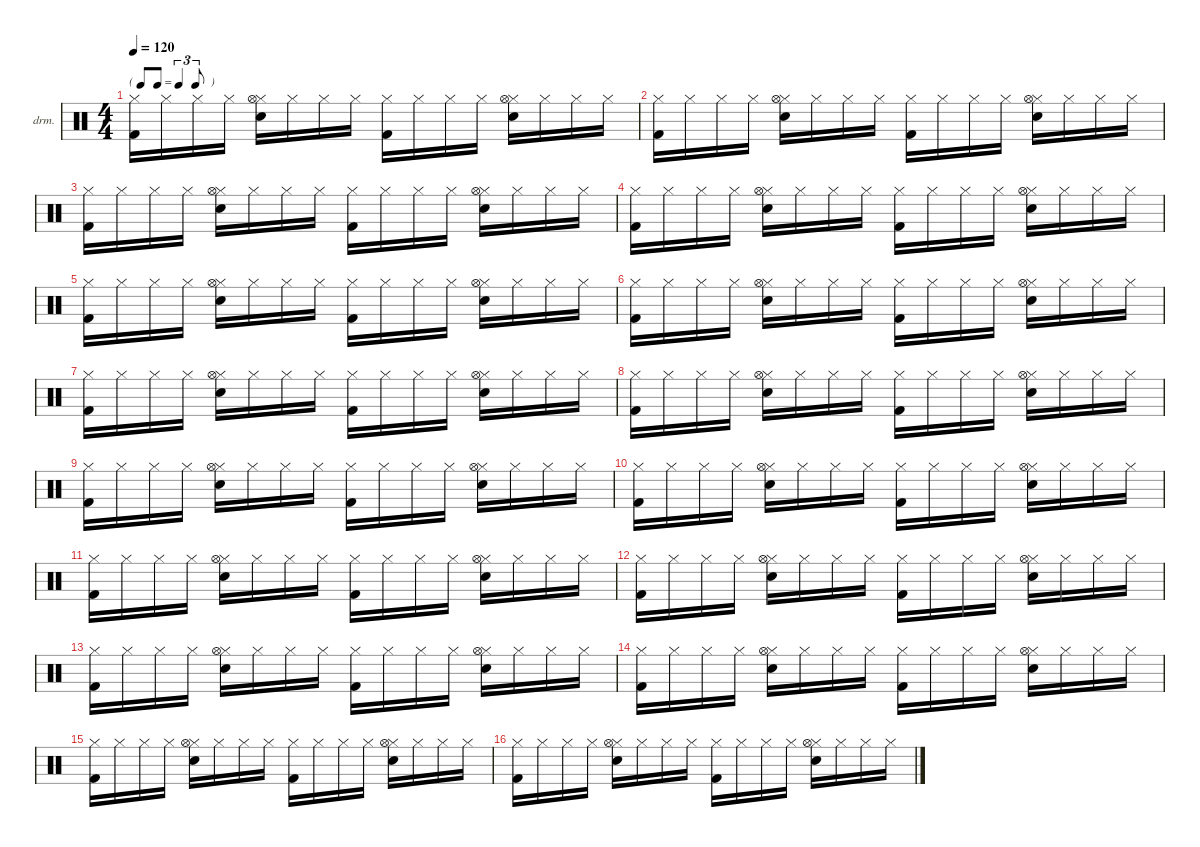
\defaultSystemsLayout 4
\hideDynamics
\bracketExtendMode nobrackets
\firstSystemTrackNameOrientation horizontal
\otherSystemsTrackNameOrientation horizontal
\track ("Percussions" "drm.") {instrument percussion}
\staff {score}
\articulation defaults
\ts (4 4)
\tf triplet8th
\tempo 120
\clef neutral
\ks c
("Hi-Hat (closed)" "Kick (hit) 2").16{dy f beam Down} "Hi-Hat (closed)".16{beam Down} "Hi-Hat (closed)".16{beam Down} "Hi-Hat (closed)".16{beam Down} ("Snare (hit) 2" "Hi-Hat (closed)" "Hi-Hat (open)").16{beam Down} "Hi-Hat (closed)".16{beam Down} "Hi-Hat (closed)".16{beam Down} "Hi-Hat (closed)".16{beam Down} ("Hi-Hat (closed)" "Kick (hit) 2").16{beam Down} "Hi-Hat (closed)".16{beam Down} "Hi-Hat (closed)".16{beam Down} "Hi-Hat (closed)".16{beam Down} ("Snare (hit) 2" "Hi-Hat (closed)" "Hi-Hat (open)").16{beam Down} "Hi-Hat (closed)".16{beam Down} "Hi-Hat (closed)".16{beam Down} "Hi-Hat (closed)".16{beam Down} |
("Hi-Hat (closed)" "Kick (hit) 2").16{beam Down} "Hi-Hat (closed)".16{beam Down} "Hi-Hat (closed)".16{beam Down} "Hi-Hat (closed)".16{beam Down} ("Snare (hit) 2" "Hi-Hat (closed)" "Hi-Hat (open)").16{beam Down} "Hi-Hat (closed)".16{beam Down} "Hi-Hat (closed)".16{beam Down} "Hi-Hat (closed)".16{beam Down} ("Hi-Hat (closed)" "Kick (hit) 2").16{beam Down} "Hi-Hat (closed)".16{beam Down} "Hi-Hat (closed)".16{beam Down} "Hi-Hat (closed)".16{beam Down} ("Snare (hit) 2" "Hi-Hat (closed)" "Hi-Hat (open)").16{beam Down} "Hi-Hat (closed)".16{beam Down} "Hi-Hat (closed)".16{beam Down} "Hi-Hat (closed)".16{beam Down} |
("Hi-Hat (closed)" "Kick (hit) 2").16{beam Down} "Hi-Hat (closed)".16{beam Down} "Hi-Hat (closed)".16{beam Down} "Hi-Hat (closed)".16{beam Down} ("Snare (hit) 2" "Hi-Hat (closed)" "Hi-Hat (open)").16{beam Down} "Hi-Hat (closed)".16{beam Down} "Hi-Hat (closed)".16{beam Down} "Hi-Hat (closed)".16{beam Down} ("Hi-Hat (closed)" "Kick (hit) 2").16{beam Down} "Hi-Hat (closed)".16{beam Down} "Hi-Hat (closed)".16{beam Down} "Hi-Hat (closed)".16{beam Down} ("Snare (hit) 2" "Hi-Hat (closed)" "Hi-Hat (open)").16{beam Down} "Hi-Hat (closed)".16{beam Down} "Hi-Hat (closed)".16{beam Down} "Hi-Hat (closed)".16{beam Down} |
("Hi-Hat (closed)" "Kick (hit) 2").16{beam Down} "Hi-Hat (closed)".16{beam Down} "Hi-Hat (closed)".16{beam Down} "Hi-Hat (closed)".16{beam Down} ("Snare (hit) 2" "Hi-Hat (closed)" "Hi-Hat (open)").16{beam Down} "Hi-Hat (closed)".16{beam Down} "Hi-Hat (closed)".16{beam Down} "Hi-Hat (closed)".16{beam Down} ("Hi-Hat (closed)" "Kick (hit) 2").16{beam Down} "Hi-Hat (closed)".16{beam Down} "Hi-Hat (closed)".16{beam Down} "Hi-Hat (closed)".16{beam Down} ("Snare (hit) 2" "Hi-Hat (closed)" "Hi-Hat (open)").16{beam Down} "Hi-Hat (closed)".16{beam Down} "Hi-Hat (closed)".16{beam Down} "Hi-Hat (closed)".16{beam Down} |
("Hi-Hat (closed)" "Kick (hit) 2").16{beam Down} "Hi-Hat (closed)".16{beam Down} "Hi-Hat (closed)".16{beam Down} "Hi-Hat (closed)".16{beam Down} ("Snare (hit) 2" "Hi-Hat (closed)" "Hi-Hat (open)").16{beam Down} "Hi-Hat (closed)".16{beam Down} "Hi-Hat (closed)".16{beam Down} "Hi-Hat (closed)".16{beam Down} ("Hi-Hat (closed)" "Kick (hit) 2").16{beam Down} "Hi-Hat (closed)".16{beam Down} "Hi-Hat (closed)".16{beam Down} "Hi-Hat (closed)".16{beam Down} ("Snare (hit) 2" "Hi-Hat (closed)" "Hi-Hat (open)").16{beam Down} "Hi-Hat (closed)".16{beam Down} "Hi-Hat (closed)".16{beam Down} "Hi-Hat (closed)".16{beam Down} |
("Hi-Hat (closed)" "Kick (hit) 2").16{beam Down} "Hi-Hat (closed)".16{beam Down} "Hi-Hat (closed)".16{beam Down} "Hi-Hat (closed)".16{beam Down} ("Snare (hit) 2" "Hi-Hat (closed)" "Hi-Hat (open)").16{beam Down} "Hi-Hat (closed)".16{beam Down} "Hi-Hat (closed)".16{beam Down} "Hi-Hat (closed)".16{beam Down} ("Hi-Hat (closed)" "Kick (hit) 2").16{beam Down} "Hi-Hat (closed)".16{beam Down} "Hi-Hat (closed)".16{beam Down} "Hi-Hat (closed)".16{beam Down} ("Snare (hit) 2" "Hi-Hat (closed)" "Hi-Hat (open)").16{beam Down} "Hi-Hat (closed)".16{beam Down} "Hi-Hat (closed)".16{beam Down} "Hi-Hat (closed)".16{beam Down} |
("Hi-Hat (closed)" "Kick (hit) 2").16{beam Down} "Hi-Hat (closed)".16{beam Down} "Hi-Hat (closed)".16{beam Down} "Hi-Hat (closed)".16{beam Down} ("Snare (hit) 2" "Hi-Hat (closed)" "Hi-Hat (open)").16{beam Down} "Hi-Hat (closed)".16{beam Down} "Hi-Hat (closed)".16{beam Down} "Hi-Hat (closed)".16{beam Down} ("Hi-Hat (closed)" "Kick (hit) 2").16{beam Down} "Hi-Hat (closed)".16{beam Down} "Hi-Hat (closed)".16{beam Down} "Hi-Hat (closed)".16{beam Down} ("Snare (hit) 2" "Hi-Hat (closed)" "Hi-Hat (open)").16{beam Down} "Hi-Hat (closed)".16{beam Down} "Hi-Hat (closed)".16{beam Down} "Hi-Hat (closed)".16{beam Down} |
("Hi-Hat (closed)" "Kick (hit) 2").16{beam Down} "Hi-Hat (closed)".16{beam Down} "Hi-Hat (closed)".16{beam Down} "Hi-Hat (closed)".16{beam Down} ("Snare (hit) 2" "Hi-Hat (closed)" "Hi-Hat (open)").16{beam Down} "Hi-Hat (closed)".16{beam Down} "Hi-Hat (closed)".16{beam Down} "Hi-Hat (closed)".16{beam Down} ("Hi-Hat (closed)" "Kick (hit) 2").16{beam Down} "Hi-Hat (closed)".16{beam Down} "Hi-Hat (closed)".16{beam Down} "Hi-Hat (closed)".16{beam Down} ("Snare (hit) 2" "Hi-Hat (closed)" "Hi-Hat (open)").16{beam Down} "Hi-Hat (closed)".16{beam Down} "Hi-Hat (closed)".16{beam Down} "Hi-Hat (closed)".16{beam Down} |
("Hi-Hat (closed)" "Kick (hit) 2").16{beam Down} "Hi-Hat (closed)".16{beam Down} "Hi-Hat (closed)".16{beam Down} "Hi-Hat (closed)".16{beam Down} ("Snare (hit) 2" "Hi-Hat (closed)" "Hi-Hat (open)").16{beam Down} "Hi-Hat (closed)".16{beam Down} "Hi-Hat (closed)".16{beam Down} "Hi-Hat (closed)".16{beam Down} ("Hi-Hat (closed)" "Kick (hit) 2").16{beam Down} "Hi-Hat (closed)".16{beam Down} "Hi-Hat (closed)".16{beam Down} "Hi-Hat (closed)".16{beam Down} ("Snare (hit) 2" "Hi-Hat (closed)" "Hi-Hat (open)").16{beam Down} "Hi-Hat (closed)".16{beam Down} "Hi-Hat (closed)".16{beam Down} "Hi-Hat (closed)".16{beam Down} |
("Hi-Hat (closed)" "Kick (hit) 2").16{beam Down} "Hi-Hat (closed)".16{beam Down} "Hi-Hat (closed)".16{beam Down} "Hi-Hat (closed)".16{beam Down} ("Snare (hit) 2" "Hi-Hat (closed)" "Hi-Hat (open)").16{beam Down} "Hi-Hat (closed)".16{beam Down} "Hi-Hat (closed)".16{beam Down} "Hi-Hat (closed)".16{beam Down} ("Hi-Hat (closed)" "Kick (hit) 2").16{beam Down} "Hi-Hat (closed)".16{beam Down} "Hi-Hat (closed)".16{beam Down} "Hi-Hat (closed)".16{beam Down} ("Snare (hit) 2" "Hi-Hat (closed)" "Hi-Hat (open)").16{beam Down} "Hi-Hat (closed)".16{beam Down} "Hi-Hat (closed)".16{beam Down} "Hi-Hat (closed)".16{beam Down} |
("Hi-Hat (closed)" "Kick (hit) 2").16{beam Down} "Hi-Hat (closed)".16{beam Down} "Hi-Hat (closed)".16{beam Down} "Hi-Hat (closed)".16{beam Down} ("Snare (hit) 2" "Hi-Hat (closed)" "Hi-Hat (open)").16{beam Down} "Hi-Hat (closed)".16{beam Down} "Hi-Hat (closed)".16{beam Down} "Hi-Hat (closed)".16{beam Down} ("Hi-Hat (closed)" "Kick (hit) 2").16{beam Down} "Hi-Hat (closed)".16{beam Down} "Hi-Hat (closed)".16{beam Down} "Hi-Hat (closed)".16{beam Down} ("Snare (hit) 2" "Hi-Hat (closed)" "Hi-Hat (open)").16{beam Down} "Hi-Hat (closed)".16{beam Down} "Hi-Hat (closed)".16{beam Down} "Hi-Hat (closed)".16{beam Down} |
("Hi-Hat (closed)" "Kick (hit) 2").16{beam Down} "Hi-Hat (closed)".16{beam Down} "Hi-Hat (closed)".16{beam Down} "Hi-Hat (closed)".16{beam Down} ("Snare (hit) 2" "Hi-Hat (closed)" "Hi-Hat (open)").16{beam Down} "Hi-Hat (closed)".16{beam Down} "Hi-Hat (closed)".16{beam Down} "Hi-Hat (closed)".16{beam Down} ("Hi-Hat (closed)" "Kick (hit) 2").16{beam Down} "Hi-Hat (closed)".16{beam Down} "Hi-Hat (closed)".16{beam Down} "Hi-Hat (closed)".16{beam Down} ("Snare (hit) 2" "Hi-Hat (closed)" "Hi-Hat (open)").16{beam Down} "Hi-Hat (closed)".16{beam Down} "Hi-Hat (closed)".16{beam Down} "Hi-Hat (closed)".16{beam Down} |
("Hi-Hat (closed)" "Kick (hit) 2").16{beam Down} "Hi-Hat (closed)".16{beam Down} "Hi-Hat (closed)".16{beam Down} "Hi-Hat (closed)".16{beam Down} ("Snare (hit) 2" "Hi-Hat (closed)" "Hi-Hat (open)").16{beam Down} "Hi-Hat (closed)".16{beam Down} "Hi-Hat (closed)".16{beam Down} "Hi-Hat (closed)".16{beam Down} ("Hi-Hat (closed)" "Kick (hit) 2").16{beam Down} "Hi-Hat (closed)".16{beam Down} "Hi-Hat (closed)".16{beam Down} "Hi-Hat (closed)".16{beam Down} ("Snare (hit) 2" "Hi-Hat (closed)" "Hi-Hat (open)").16{beam Down} "Hi-Hat (closed)".16{beam Down} "Hi-Hat (closed)".16{beam Down} "Hi-Hat (closed)".16{beam Down} |
("Hi-Hat (closed)" "Kick (hit) 2").16{beam Down} "Hi-Hat (closed)".16{beam Down} "Hi-Hat (closed)".16{beam Down} "Hi-Hat (closed)".16{beam Down} ("Snare (hit) 2" "Hi-Hat (closed)" "Hi-Hat (open)").16{beam Down} "Hi-Hat (closed)".16{beam Down} "Hi-Hat (closed)".16{beam Down} "Hi-Hat (closed)".16{beam Down} ("Hi-Hat (closed)" "Kick (hit) 2").16{beam Down} "Hi-Hat (closed)".16{beam Down} "Hi-Hat (closed)".16{beam Down} "Hi-Hat (closed)".16{beam Down} ("Snare (hit) 2" "Hi-Hat (closed)" "Hi-Hat (open)").16{beam Down} "Hi-Hat (closed)".16{beam Down} "Hi-Hat (closed)".16{beam Down} "Hi-Hat (closed)".16{beam Down} |
("Hi-Hat (closed)" "Kick (hit) 2").16{beam Down} "Hi-Hat (closed)".16{beam Down} "Hi-Hat (closed)".16{beam Down} "Hi-Hat (closed)".16{beam Down} ("Snare (hit) 2" "Hi-Hat (closed)" "Hi-Hat (open)").16{beam Down} "Hi-Hat (closed)".16{beam Down} "Hi-Hat (closed)".16{beam Down} "Hi-Hat (closed)".16{beam Down} ("Hi-Hat (closed)" "Kick (hit) 2").16{beam Down} "Hi-Hat (closed)".16{beam Down} "Hi-Hat (closed)".16{beam Down} "Hi-Hat (closed)".16{beam Down} ("Snare (hit) 2" "Hi-Hat (closed)" "Hi-Hat (open)").16{beam Down} "Hi-Hat (closed)".16{beam Down} "Hi-Hat (closed)".16{beam Down} "Hi-Hat (closed)".16{beam Down} |
("Hi-Hat (closed)" "Kick (hit) 2").16{beam Down} "Hi-Hat (closed)".16{beam Down} "Hi-Hat (closed)".16{beam Down} "Hi-Hat (closed)".16{beam Down} ("Snare (hit) 2" "Hi-Hat (closed)" "Hi-Hat (open)").16{beam Down} "Hi-Hat (closed)".16{beam Down} "Hi-Hat (closed)".16{beam Down} "Hi-Hat (closed)".16{beam Down} ("Hi-Hat (closed)" "Kick (hit) 2").16{beam Down} "Hi-Hat (closed)".16{beam Down} "Hi-Hat (closed)".16{beam Down} "Hi-Hat (closed)".16{beam Down} ("Snare (hit) 2" "Hi-Hat (closed)" "Hi-Hat (open)").16{beam Down} "Hi-Hat (closed)".16{beam Down} "Hi-Hat (closed)".16{beam Down} "Hi-Hat (closed)".16{beam Down}
